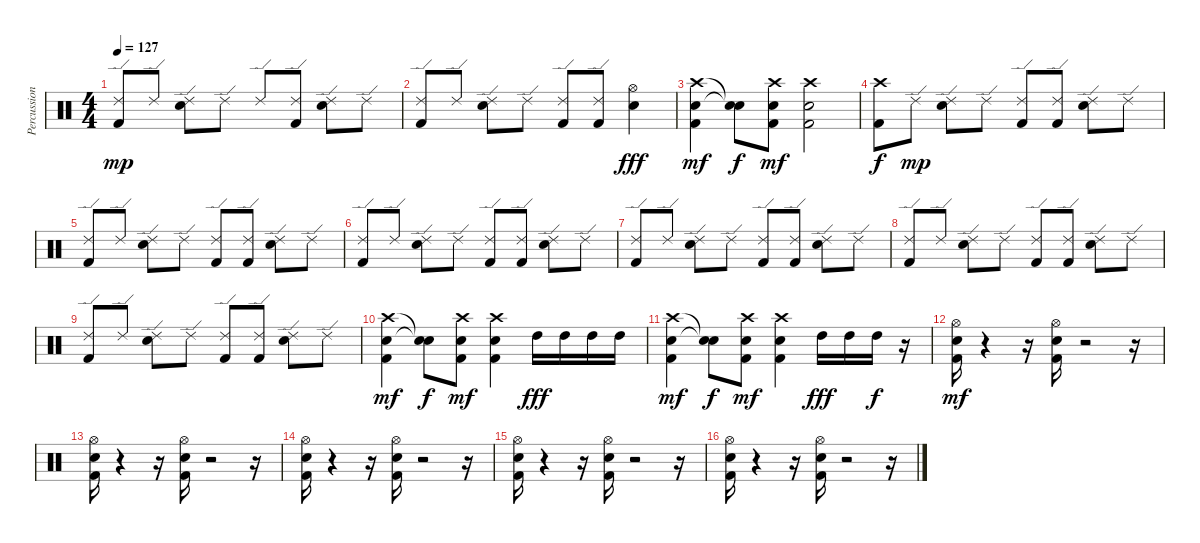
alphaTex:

\track ("Percussion" "Percussion") {instrument percussion}
\staff {score}
\articulation defaults
\ts (4 4)
\tempo 127
\clef neutral
\ks c
("Ride (edge) 2" "Kick (hit) 2").8{dy mp} "Ride (edge) 2".8 ("Ride (edge) 2" "Snare (hit) 2").8 "Ride (edge) 2".8 "Ride (edge) 2".8 ("Ride (edge) 2" "Kick (hit) 2").8 ("Ride (edge) 2" "Snare (hit) 2").8 "Ride (edge) 2".8 |
("Ride (edge) 2" "Kick (hit) 2").8 "Ride (edge) 2".8 ("Ride (edge) 2" "Snare (hit) 2").8 "Ride (edge) 2".8 ("Ride (edge) 2" "Kick (hit) 2").8 ("Ride (edge) 2" "Kick (hit) 2").8 ("Hi-Hat (open)" "Electric Snare (hit)").4{dy fff} |
("Crash high (hit)" "Snare (hit) 2" "Kick (hit) 2").4{dy mf} ("Snare (hit)"{t} "Snare (hit)"{t}).8{dy f} ("Crash high (hit)" "Snare (hit) 2" "Kick (hit) 2").8{dy mf} ("Crash high (hit)" "Snare (hit) 2" "Kick (hit) 2").2 |
("Crash high (hit)" "Kick (hit) 2").8{dy f} "Ride (edge) 2".8{dy mp} ("Ride (edge) 2" "Snare (hit) 2").8 "Ride (edge) 2".8 ("Ride (edge) 2" "Kick (hit) 2").8 ("Ride (edge) 2" "Kick (hit) 2").8 ("Ride (edge) 2" "Snare (hit) 2").8 "Ride (edge) 2".8 |
("Ride (edge) 2" "Kick (hit) 2").8 "Ride (edge) 2".8 ("Ride (edge) 2" "Snare (hit) 2").8 "Ride (edge) 2".8 ("Ride (edge) 2" "Kick (hit) 2").8 ("Ride (edge) 2" "Kick (hit) 2").8 ("Ride (edge) 2" "Snare (hit) 2").8 "Ride (edge) 2".8 |
("Ride (edge) 2" "Kick (hit) 2").8 "Ride (edge) 2".8 ("Ride (edge) 2" "Snare (hit) 2").8 "Ride (edge) 2".8 ("Ride (edge) 2" "Kick (hit) 2").8 ("Ride (edge) 2" "Kick (hit) 2").8 ("Ride (edge) 2" "Snare (hit) 2").8 "Ride (edge) 2".8 |
("Ride (edge) 2" "Kick (hit) 2").8 "Ride (edge) 2".8 ("Ride (edge) 2" "Snare (hit) 2").8 "Ride (edge) 2".8 ("Ride (edge) 2" "Kick (hit) 2").8 ("Ride (edge) 2" "Kick (hit) 2").8 ("Ride (edge) 2" "Snare (hit) 2").8 "Ride (edge) 2".8 |
("Ride (edge) 2" "Kick (hit) 2").8 "Ride (edge) 2".8 ("Ride (edge) 2" "Snare (hit) 2").8 "Ride (edge) 2".8 ("Ride (edge) 2" "Kick (hit) 2").8 ("Ride (edge) 2" "Kick (hit) 2").8 ("Ride (edge) 2" "Snare (hit) 2").8 "Ride (edge) 2".8 |
("Ride (edge) 2" "Kick (hit) 2").8 "Ride (edge) 2".8 ("Ride (edge) 2" "Snare (hit) 2").8 "Ride (edge) 2".8 ("Ride (edge) 2" "Kick (hit) 2").8 ("Ride (edge) 2" "Kick (hit) 2").8 ("Ride (edge) 2" "Snare (hit) 2").8 "Ride (edge) 2".8 |
("Crash high (hit)" "Snare (hit) 2" "Kick (hit) 2").4{dy mf} ("Snare (hit)"{t} "Snare (hit)"{t}).8{dy f} ("Crash high (hit)" "Snare (hit) 2" "Kick (hit) 2").8{dy mf} ("Crash high (hit)" "Snare (hit) 2" "Kick (hit) 2").4 "High Tom (hit)".16{dy fff} "High Tom (hit)".16 "High Tom (hit)".16 "High Tom (hit)".16 |
("Crash high (hit)" "Snare (hit) 2" "Kick (hit) 2").4{dy mf} ("Snare (hit)"{t} "Snare (hit)"{t}).8{dy f} ("Crash high (hit)" "Snare (hit) 2" "Kick (hit) 2").8{dy mf} ("Crash high (hit)" "Snare (hit) 2" "Kick (hit) 2").4 "High Tom (hit)".16{dy fff} "High Tom (hit)".16 "High Tom (hit)".16{dy f} r.16 |
("Hi-Hat (open)" "Snare (hit) 2" "Kick (hit) 2").16{dy mf} r.4 r.16 ("Hi-Hat (open)" "Snare (hit) 2" "Kick (hit) 2").16 r.2 r.16 |
("Hi-Hat (open)" "Snare (hit) 2" "Kick (hit) 2").16 r.4 r.16 ("Hi-Hat (open)" "Snare (hit) 2" "Kick (hit) 2").16 r.2 r.16 |
("Hi-Hat (open)" "Snare (hit) 2" "Kick (hit) 2").16 r.4 r.16 ("Hi-Hat (open)" "Snare (hit) 2" "Kick (hit) 2").16 r.2 r.16 |
("Hi-Hat (open)" "Snare (hit) 2" "Kick (hit) 2").16 r.4 r.16 ("Hi-Hat (open)" "Snare (hit) 2" "Kick (hit) 2").16 r.2 r.16 |
("Hi-Hat (open)" "Snare (hit) 2" "Kick (hit) 2").16 r.4 r.16 ("Hi-Hat (open)" "Snare (hit) 2" "Kick (hit) 2").16 r.2 r.16
